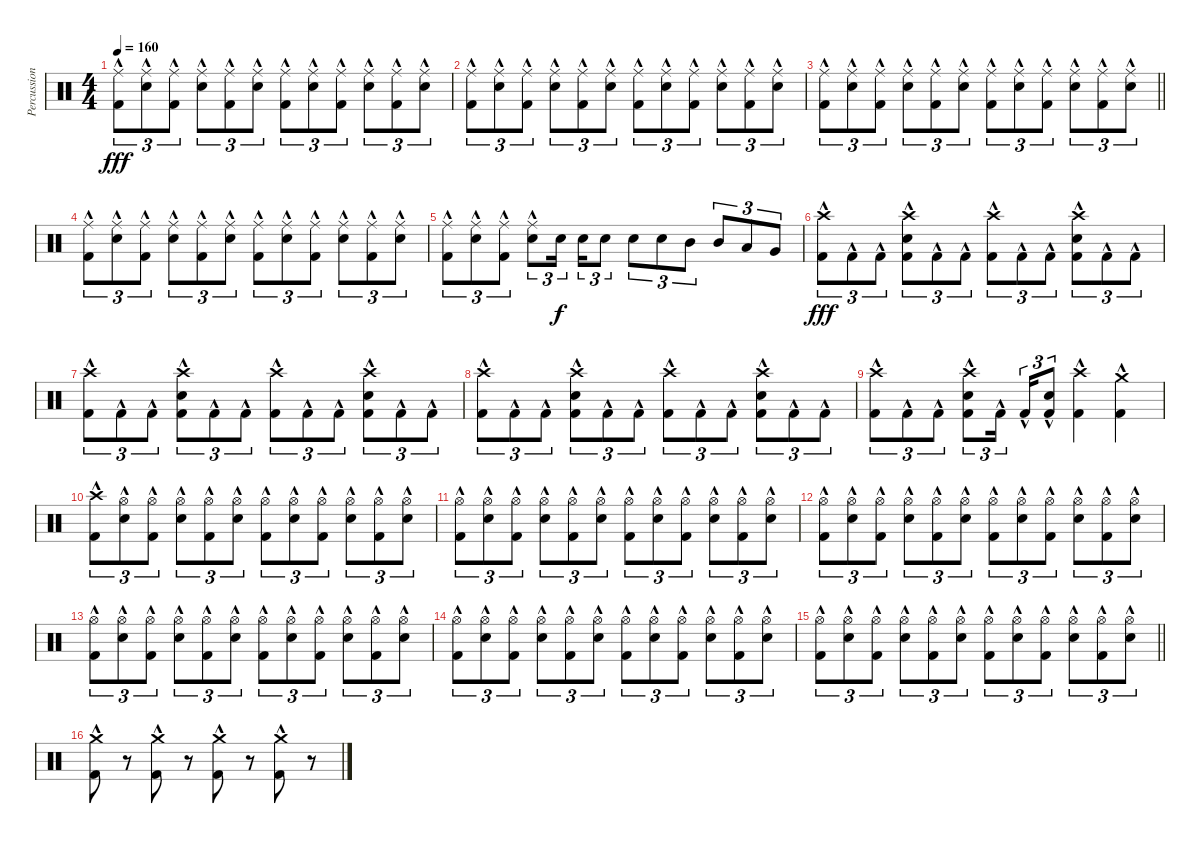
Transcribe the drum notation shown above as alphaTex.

\track ("Percussion" "Percussion") {instrument percussion}
\staff {score}
\articulation defaults
\ts (4 4)
\tempo 160
\clef neutral
\ks c
("Ride (middle)" "Kick (hit) 2"{hac}).8{tu (3 2) dy fff} ("Ride (middle)" "Electric Snare (hit)"{hac}).8{tu (3 2)} ("Ride (middle)" "Kick (hit) 2"{hac}).8{tu (3 2)} ("Ride (middle)" "Electric Snare (hit)"{hac}).8{tu (3 2)} ("Ride (middle)" "Kick (hit) 2"{hac}).8{tu (3 2)} ("Ride (middle)" "Electric Snare (hit)"{hac}).8{tu (3 2)} ("Ride (middle)" "Kick (hit) 2"{hac}).8{tu (3 2)} ("Ride (middle)" "Electric Snare (hit)"{hac}).8{tu (3 2)} ("Ride (middle)" "Kick (hit) 2"{hac}).8{tu (3 2)} ("Ride (middle)" "Electric Snare (hit)"{hac}).8{tu (3 2)} ("Ride (middle)" "Kick (hit) 2"{hac}).8{tu (3 2)} ("Ride (middle)" "Electric Snare (hit)"{hac}).8{tu (3 2)} |
("Ride (middle)" "Kick (hit) 2"{hac}).8{tu (3 2)} ("Ride (middle)" "Electric Snare (hit)"{hac}).8{tu (3 2)} ("Ride (middle)" "Kick (hit) 2"{hac}).8{tu (3 2)} ("Ride (middle)" "Electric Snare (hit)"{hac}).8{tu (3 2)} ("Ride (middle)" "Kick (hit) 2"{hac}).8{tu (3 2)} ("Ride (middle)" "Electric Snare (hit)"{hac}).8{tu (3 2)} ("Ride (middle)" "Kick (hit) 2"{hac}).8{tu (3 2)} ("Ride (middle)" "Electric Snare (hit)"{hac}).8{tu (3 2)} ("Ride (middle)" "Kick (hit) 2"{hac}).8{tu (3 2)} ("Ride (middle)" "Electric Snare (hit)"{hac}).8{tu (3 2)} ("Ride (middle)" "Kick (hit) 2"{hac}).8{tu (3 2)} ("Ride (middle)" "Electric Snare (hit)"{hac}).8{tu (3 2)} |
\barLineRight lightlight
("Ride (middle)" "Kick (hit) 2"{hac}).8{tu (3 2)} ("Ride (middle)" "Electric Snare (hit)"{hac}).8{tu (3 2)} ("Ride (middle)" "Kick (hit) 2"{hac}).8{tu (3 2)} ("Ride (middle)" "Electric Snare (hit)"{hac}).8{tu (3 2)} ("Ride (middle)" "Kick (hit) 2"{hac}).8{tu (3 2)} ("Ride (middle)" "Electric Snare (hit)"{hac}).8{tu (3 2)} ("Ride (middle)" "Kick (hit) 2"{hac}).8{tu (3 2)} ("Ride (middle)" "Electric Snare (hit)"{hac}).8{tu (3 2)} ("Ride (middle)" "Kick (hit) 2"{hac}).8{tu (3 2)} ("Ride (middle)" "Electric Snare (hit)"{hac}).8{tu (3 2)} ("Ride (middle)" "Kick (hit) 2"{hac}).8{tu (3 2)} ("Ride (middle)" "Electric Snare (hit)"{hac}).8{tu (3 2)} |
("Ride (middle)" "Kick (hit) 2"{hac}).8{tu (3 2)} ("Ride (middle)" "Electric Snare (hit)"{hac}).8{tu (3 2)} ("Ride (middle)" "Kick (hit) 2"{hac}).8{tu (3 2)} ("Ride (middle)" "Electric Snare (hit)"{hac}).8{tu (3 2)} ("Ride (middle)" "Kick (hit) 2"{hac}).8{tu (3 2)} ("Ride (middle)" "Electric Snare (hit)"{hac}).8{tu (3 2)} ("Ride (middle)" "Kick (hit) 2"{hac}).8{tu (3 2)} ("Ride (middle)" "Electric Snare (hit)"{hac}).8{tu (3 2)} ("Ride (middle)" "Kick (hit) 2"{hac}).8{tu (3 2)} ("Ride (middle)" "Electric Snare (hit)"{hac}).8{tu (3 2)} ("Ride (middle)" "Kick (hit) 2"{hac}).8{tu (3 2)} ("Ride (middle)" "Electric Snare (hit)"{hac}).8{tu (3 2)} |
("Ride (middle)" "Kick (hit) 2"{hac}).8{tu (3 2)} ("Ride (middle)" "Electric Snare (hit)"{hac}).8{tu (3 2)} ("Ride (middle)" "Kick (hit) 2"{hac}).8{tu (3 2)} ("Ride (middle)" "Electric Snare (hit)"{hac}).8{tu (3 2)} "Electric Snare (hit)".16{tu (3 2) dy f} "Electric Snare (hit)".16{tu (3 2)} "Electric Snare (hit)".8{tu (3 2)} "Electric Snare (hit)".8{tu (3 2)} "Electric Snare (hit)".8{tu (3 2)} "Mid Tom (hit)".8{tu (3 2)} "Mid Tom (hit)".8{tu (3 2)} "Low Tom (hit)".8{tu (3 2)} "Very Low Tom (hit)".8{tu (3 2)} |
("Crash high (hit)" "Kick (hit) 2"{hac}).8{tu (3 2) dy fff} "Kick (hit) 2"{hac}.8{tu (3 2)} "Kick (hit) 2"{hac}.8{tu (3 2)} ("Crash high (hit)" "Electric Snare (hit)"{hac} "Kick (hit) 2"{hac}).8{tu (3 2)} "Kick (hit) 2"{hac}.8{tu (3 2)} "Kick (hit) 2"{hac}.8{tu (3 2)} ("Crash high (hit)" "Kick (hit) 2"{hac}).8{tu (3 2)} "Kick (hit) 2"{hac}.8{tu (3 2)} "Kick (hit) 2"{hac}.8{tu (3 2)} ("Crash high (hit)" "Electric Snare (hit)"{hac} "Kick (hit) 2"{hac}).8{tu (3 2)} "Kick (hit) 2"{hac}.8{tu (3 2)} "Kick (hit) 2"{hac}.8{tu (3 2)} |
("Crash high (hit)" "Kick (hit) 2"{hac}).8{tu (3 2)} "Kick (hit) 2"{hac}.8{tu (3 2)} "Kick (hit) 2"{hac}.8{tu (3 2)} ("Crash high (hit)" "Electric Snare (hit)"{hac} "Kick (hit) 2"{hac}).8{tu (3 2)} "Kick (hit) 2"{hac}.8{tu (3 2)} "Kick (hit) 2"{hac}.8{tu (3 2)} ("Crash high (hit)" "Kick (hit) 2"{hac}).8{tu (3 2)} "Kick (hit) 2"{hac}.8{tu (3 2)} "Kick (hit) 2"{hac}.8{tu (3 2)} ("Crash high (hit)" "Electric Snare (hit)"{hac} "Kick (hit) 2"{hac}).8{tu (3 2)} "Kick (hit) 2"{hac}.8{tu (3 2)} "Kick (hit) 2"{hac}.8{tu (3 2)} |
("Crash high (hit)" "Kick (hit) 2"{hac}).8{tu (3 2)} "Kick (hit) 2"{hac}.8{tu (3 2)} "Kick (hit) 2"{hac}.8{tu (3 2)} ("Crash high (hit)" "Electric Snare (hit)"{hac} "Kick (hit) 2"{hac}).8{tu (3 2)} "Kick (hit) 2"{hac}.8{tu (3 2)} "Kick (hit) 2"{hac}.8{tu (3 2)} ("Crash high (hit)" "Kick (hit) 2"{hac}).8{tu (3 2)} "Kick (hit) 2"{hac}.8{tu (3 2)} "Kick (hit) 2"{hac}.8{tu (3 2)} ("Crash high (hit)" "Electric Snare (hit)"{hac} "Kick (hit) 2"{hac}).8{tu (3 2)} "Kick (hit) 2"{hac}.8{tu (3 2)} "Kick (hit) 2"{hac}.8{tu (3 2)} |
("Crash high (hit)" "Kick (hit) 2"{hac}).8{tu (3 2)} "Kick (hit) 2"{hac}.8{tu (3 2)} "Kick (hit) 2"{hac}.8{tu (3 2)} ("Crash high (hit)" "Electric Snare (hit)"{hac} "Kick (hit) 2"{hac}).8{tu (3 2)} "Kick (hit) 2"{hac}.16{tu (3 2)} "Kick (hit) 2"{hac}.16{tu (3 2)} ("Electric Snare (hit)"{hac} "Kick (hit) 2"{hac}).8{tu (3 2)} ("Crash high (hit)" "Kick (hit) 2"{hac}).4 ("Crash medium (hit)" "Kick (hit) 2"{hac}).4 |
("Crash high (hit)" "Kick (hit) 2"{hac}).8{tu (3 2)} ("Hi-Hat (open)" "Electric Snare (hit)"{hac}).8{tu (3 2)} ("Hi-Hat (open)" "Kick (hit) 2"{hac}).8{tu (3 2)} ("Hi-Hat (open)" "Electric Snare (hit)"{hac}).8{tu (3 2)} ("Hi-Hat (open)" "Kick (hit) 2"{hac}).8{tu (3 2)} ("Hi-Hat (open)" "Electric Snare (hit)"{hac}).8{tu (3 2)} ("Hi-Hat (open)" "Kick (hit) 2"{hac}).8{tu (3 2)} ("Hi-Hat (open)" "Electric Snare (hit)"{hac}).8{tu (3 2)} ("Hi-Hat (open)" "Kick (hit) 2"{hac}).8{tu (3 2)} ("Hi-Hat (open)" "Electric Snare (hit)"{hac}).8{tu (3 2)} ("Hi-Hat (open)" "Kick (hit) 2"{hac}).8{tu (3 2)} ("Hi-Hat (open)" "Electric Snare (hit)"{hac}).8{tu (3 2)} |
("Hi-Hat (open)" "Kick (hit) 2"{hac}).8{tu (3 2)} ("Hi-Hat (open)" "Electric Snare (hit)"{hac}).8{tu (3 2)} ("Hi-Hat (open)" "Kick (hit) 2"{hac}).8{tu (3 2)} ("Hi-Hat (open)" "Electric Snare (hit)"{hac}).8{tu (3 2)} ("Hi-Hat (open)" "Kick (hit) 2"{hac}).8{tu (3 2)} ("Hi-Hat (open)" "Electric Snare (hit)"{hac}).8{tu (3 2)} ("Hi-Hat (open)" "Kick (hit) 2"{hac}).8{tu (3 2)} ("Hi-Hat (open)" "Electric Snare (hit)"{hac}).8{tu (3 2)} ("Hi-Hat (open)" "Kick (hit) 2"{hac}).8{tu (3 2)} ("Hi-Hat (open)" "Electric Snare (hit)"{hac}).8{tu (3 2)} ("Hi-Hat (open)" "Kick (hit) 2"{hac}).8{tu (3 2)} ("Hi-Hat (open)" "Electric Snare (hit)"{hac}).8{tu (3 2)} |
("Hi-Hat (open)" "Kick (hit) 2"{hac}).8{tu (3 2)} ("Hi-Hat (open)" "Electric Snare (hit)"{hac}).8{tu (3 2)} ("Hi-Hat (open)" "Kick (hit) 2"{hac}).8{tu (3 2)} ("Hi-Hat (open)" "Electric Snare (hit)"{hac}).8{tu (3 2)} ("Hi-Hat (open)" "Kick (hit) 2"{hac}).8{tu (3 2)} ("Hi-Hat (open)" "Electric Snare (hit)"{hac}).8{tu (3 2)} ("Hi-Hat (open)" "Kick (hit) 2"{hac}).8{tu (3 2)} ("Hi-Hat (open)" "Electric Snare (hit)"{hac}).8{tu (3 2)} ("Hi-Hat (open)" "Kick (hit) 2"{hac}).8{tu (3 2)} ("Hi-Hat (open)" "Electric Snare (hit)"{hac}).8{tu (3 2)} ("Hi-Hat (open)" "Kick (hit) 2"{hac}).8{tu (3 2)} ("Hi-Hat (open)" "Electric Snare (hit)"{hac}).8{tu (3 2)} |
("Hi-Hat (open)" "Kick (hit) 2"{hac}).8{tu (3 2)} ("Hi-Hat (open)" "Electric Snare (hit)"{hac}).8{tu (3 2)} ("Hi-Hat (open)" "Kick (hit) 2"{hac}).8{tu (3 2)} ("Hi-Hat (open)" "Electric Snare (hit)"{hac}).8{tu (3 2)} ("Hi-Hat (open)" "Kick (hit) 2"{hac}).8{tu (3 2)} ("Hi-Hat (open)" "Electric Snare (hit)"{hac}).8{tu (3 2)} ("Hi-Hat (open)" "Kick (hit) 2"{hac}).8{tu (3 2)} ("Hi-Hat (open)" "Electric Snare (hit)"{hac}).8{tu (3 2)} ("Hi-Hat (open)" "Kick (hit) 2"{hac}).8{tu (3 2)} ("Hi-Hat (open)" "Electric Snare (hit)"{hac}).8{tu (3 2)} ("Hi-Hat (open)" "Kick (hit) 2"{hac}).8{tu (3 2)} ("Hi-Hat (open)" "Electric Snare (hit)"{hac}).8{tu (3 2)} |
("Hi-Hat (open)" "Kick (hit) 2"{hac}).8{tu (3 2)} ("Hi-Hat (open)" "Electric Snare (hit)"{hac}).8{tu (3 2)} ("Hi-Hat (open)" "Kick (hit) 2"{hac}).8{tu (3 2)} ("Hi-Hat (open)" "Electric Snare (hit)"{hac}).8{tu (3 2)} ("Hi-Hat (open)" "Kick (hit) 2"{hac}).8{tu (3 2)} ("Hi-Hat (open)" "Electric Snare (hit)"{hac}).8{tu (3 2)} ("Hi-Hat (open)" "Kick (hit) 2"{hac}).8{tu (3 2)} ("Hi-Hat (open)" "Electric Snare (hit)"{hac}).8{tu (3 2)} ("Hi-Hat (open)" "Kick (hit) 2"{hac}).8{tu (3 2)} ("Hi-Hat (open)" "Electric Snare (hit)"{hac}).8{tu (3 2)} ("Hi-Hat (open)" "Kick (hit) 2"{hac}).8{tu (3 2)} ("Hi-Hat (open)" "Electric Snare (hit)"{hac}).8{tu (3 2)} |
\barLineRight lightlight
("Hi-Hat (open)" "Kick (hit) 2"{hac}).8{tu (3 2)} ("Hi-Hat (open)" "Electric Snare (hit)"{hac}).8{tu (3 2)} ("Hi-Hat (open)" "Kick (hit) 2"{hac}).8{tu (3 2)} ("Hi-Hat (open)" "Electric Snare (hit)"{hac}).8{tu (3 2)} ("Hi-Hat (open)" "Kick (hit) 2"{hac}).8{tu (3 2)} ("Hi-Hat (open)" "Electric Snare (hit)"{hac}).8{tu (3 2)} ("Hi-Hat (open)" "Kick (hit) 2"{hac}).8{tu (3 2)} ("Hi-Hat (open)" "Electric Snare (hit)"{hac}).8{tu (3 2)} ("Hi-Hat (open)" "Kick (hit) 2"{hac}).8{tu (3 2)} ("Hi-Hat (open)" "Electric Snare (hit)"{hac}).8{tu (3 2)} ("Hi-Hat (open)" "Kick (hit) 2"{hac}).8{tu (3 2)} ("Hi-Hat (open)" "Electric Snare (hit)"{hac}).8{tu (3 2)} |
("Crash medium (hit)" "Kick (hit) 2"{hac}).8 r.8{volume 0} ("Crash medium (hit)" "Kick (hit) 2"{hac}).8{volume 13} r.8{volume 0} ("Crash medium (hit)" "Kick (hit) 2"{hac}).8{volume 13} r.8{volume 0} ("Crash medium (hit)" "Kick (hit) 2"{hac}).8{volume 13} r.8{volume 0}
